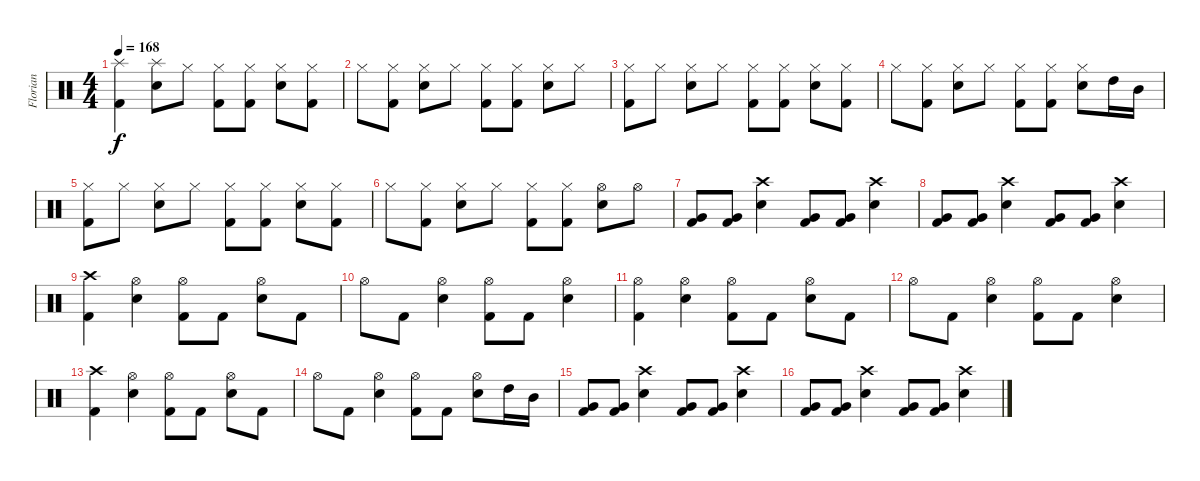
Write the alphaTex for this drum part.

\track ("Florian" "Florian") {instrument percussion}
\staff {score}
\articulation defaults
\ts (4 4)
\tempo 168
\clef neutral
\ks c
("Splash (hit)" "Kick (hit) 2").4{dy f} ("Splash (hit)" "Snare (hit) 2").8 "Hi-Hat (closed)".8 ("Hi-Hat (closed)" "Kick (hit) 2").8 ("Hi-Hat (closed)" "Kick (hit) 2").8 ("Hi-Hat (closed)" "Snare (hit) 2").8 ("Hi-Hat (closed)" "Kick (hit) 2").8 |
"Hi-Hat (closed)".8 ("Hi-Hat (closed)" "Kick (hit) 2").8 ("Hi-Hat (closed)" "Snare (hit) 2").8 "Hi-Hat (closed)".8 ("Hi-Hat (closed)" "Kick (hit) 2").8 ("Hi-Hat (closed)" "Kick (hit) 2").8 ("Hi-Hat (closed)" "Snare (hit) 2").8 "Hi-Hat (closed)".8 |
("Hi-Hat (closed)" "Kick (hit) 2").8 "Hi-Hat (closed)".8 ("Hi-Hat (closed)" "Snare (hit) 2").8 "Hi-Hat (closed)".8 ("Hi-Hat (closed)" "Kick (hit) 2").8 ("Hi-Hat (closed)" "Kick (hit) 2").8 ("Hi-Hat (closed)" "Snare (hit) 2").8 ("Hi-Hat (closed)" "Kick (hit) 2").8 |
"Hi-Hat (closed)".8 ("Hi-Hat (closed)" "Kick (hit) 2").8 ("Hi-Hat (closed)" "Snare (hit) 2").8 "Hi-Hat (closed)".8 ("Hi-Hat (closed)" "Kick (hit) 2").8 ("Hi-Hat (closed)" "Kick (hit) 2").8 ("Hi-Hat (closed)" "Snare (hit) 2").8 "High Tom (hit)".16 "Mid Tom (hit)".16 |
("Hi-Hat (closed)" "Kick (hit) 2").8 "Hi-Hat (closed)".8 ("Hi-Hat (closed)" "Snare (hit) 2").8 "Hi-Hat (closed)".8 ("Hi-Hat (closed)" "Kick (hit) 2").8 ("Hi-Hat (closed)" "Kick (hit) 2").8 ("Hi-Hat (closed)" "Snare (hit) 2").8 ("Hi-Hat (closed)" "Kick (hit) 2").8 |
"Hi-Hat (closed)".8 ("Hi-Hat (closed)" "Kick (hit) 2").8 ("Hi-Hat (closed)" "Snare (hit) 2").8 "Hi-Hat (closed)".8 ("Hi-Hat (closed)" "Kick (hit) 2").8 ("Hi-Hat (closed)" "Kick (hit) 2").8 ("Hi-Hat (open)" "Snare (hit) 2").8 "Hi-Hat (open)".8 |
("Very Low Tom (hit)" "Kick (hit) 2").8 ("Very Low Tom (hit)" "Kick (hit) 2").8 ("Crash high (hit)" "Snare (hit) 2").4 ("Very Low Tom (hit)" "Kick (hit) 2").8 ("Very Low Tom (hit)" "Kick (hit) 2").8 ("Crash high (hit)" "Snare (hit) 2").4 |
("Very Low Tom (hit)" "Kick (hit) 2").8 ("Very Low Tom (hit)" "Kick (hit) 2").8 ("Crash high (hit)" "Snare (hit) 2").4 ("Very Low Tom (hit)" "Kick (hit) 2").8 ("Very Low Tom (hit)" "Kick (hit) 2").8 ("Crash high (hit)" "Snare (hit) 2").4 |
("Crash high (hit)" "Kick (hit) 2").4 ("Hi-Hat (open)" "Snare (hit) 2").4 ("Hi-Hat (open)" "Kick (hit) 2").8 "Kick (hit) 2".8 ("Hi-Hat (open)" "Snare (hit) 2").8 "Kick (hit) 2".8 |
"Hi-Hat (open)".8 "Kick (hit) 2".8 ("Hi-Hat (open)" "Snare (hit) 2").4 ("Hi-Hat (open)" "Kick (hit) 2").8 "Kick (hit) 2".8 ("Hi-Hat (open)" "Snare (hit) 2").4 |
("Hi-Hat (open)" "Kick (hit) 2").4 ("Hi-Hat (open)" "Snare (hit) 2").4 ("Hi-Hat (open)" "Kick (hit) 2").8 "Kick (hit) 2".8 ("Hi-Hat (open)" "Snare (hit) 2").8 "Kick (hit) 2".8 |
"Hi-Hat (open)".8 "Kick (hit) 2".8 ("Hi-Hat (open)" "Snare (hit) 2").4 ("Hi-Hat (open)" "Kick (hit) 2").8 "Kick (hit) 2".8 ("Hi-Hat (open)" "Snare (hit) 2").4 |
("Crash high (hit)" "Kick (hit) 2").4 ("Hi-Hat (open)" "Snare (hit) 2").4 ("Hi-Hat (open)" "Kick (hit) 2").8 "Kick (hit) 2".8 ("Hi-Hat (open)" "Snare (hit) 2").8 "Kick (hit) 2".8 |
"Hi-Hat (open)".8 "Kick (hit) 2".8 ("Hi-Hat (open)" "Snare (hit) 2").4 ("Hi-Hat (open)" "Kick (hit) 2").8 "Kick (hit) 2".8 ("Hi-Hat (open)" "Snare (hit) 2").8 "High Tom (hit)".16 "Mid Tom (hit)".16 |
("Very Low Tom (hit)" "Kick (hit) 2").8 ("Very Low Tom (hit)" "Kick (hit) 2").8 ("Crash high (hit)" "Snare (hit) 2").4 ("Very Low Tom (hit)" "Kick (hit) 2").8 ("Very Low Tom (hit)" "Kick (hit) 2").8 ("Crash high (hit)" "Snare (hit) 2").4 |
("Very Low Tom (hit)" "Kick (hit) 2").8 ("Very Low Tom (hit)" "Kick (hit) 2").8 ("Crash high (hit)" "Snare (hit) 2").4 ("Very Low Tom (hit)" "Kick (hit) 2").8 ("Very Low Tom (hit)" "Kick (hit) 2").8 ("Crash high (hit)" "Snare (hit) 2").4
